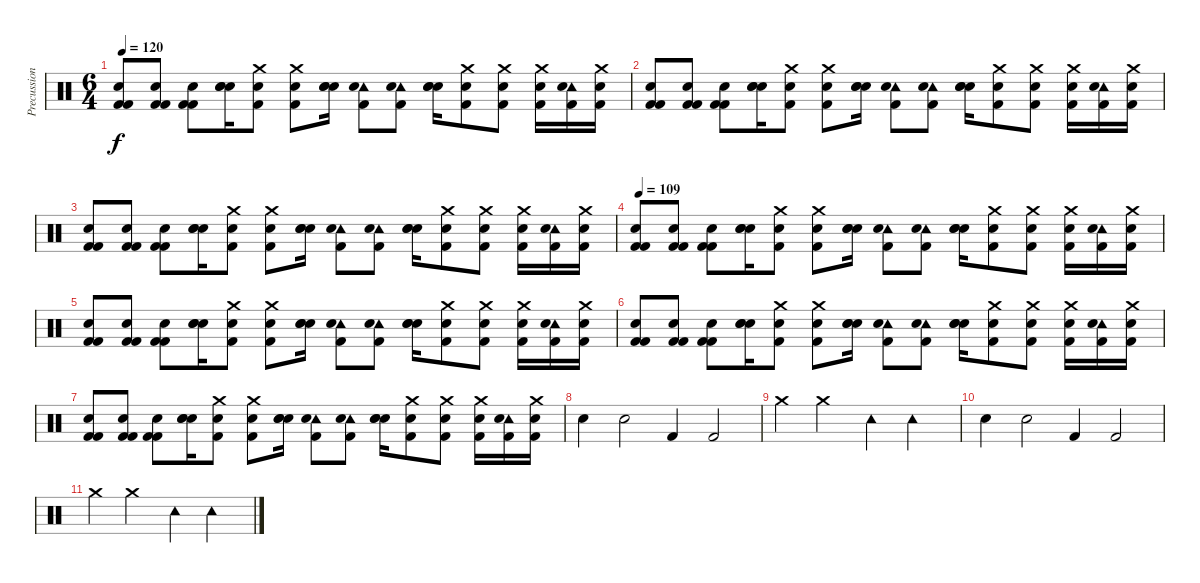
\track ("Precussion" "Precussion") {instrument percussion}
\staff {score}
\articulation defaults
\ts (6 4)
\tempo 120
\clef neutral
\ks c
("Electric Snare (hit)" "Kick (hit) 2" "Kick (hit) 2").8{dy f} ("Electric Snare (hit)" "Kick (hit) 2" "Kick (hit) 2").8 ("Electric Snare (hit)" "Kick (hit) 2" "Kick (hit) 2").8 ("Electric Snare (hit)" "Electric Snare (hit)" "Electric Snare (hit)").16 ("Crash medium (hit)" "Electric Snare (hit)" "Kick (hit) 2").8 ("Crash medium (hit)" "Electric Snare (hit)" "Kick (hit) 2").8 ("Electric Snare (hit)" "Electric Snare (hit)" "Electric Snare (hit)").16 ("Tambourine (hit)" "Electric Snare (hit)" "Kick (hit) 2").8 ("Tambourine (hit)" "Electric Snare (hit)" "Kick (hit) 2").8 ("Electric Snare (hit)" "Electric Snare (hit)" "Electric Snare (hit)").16 ("Crash medium (hit)" "Electric Snare (hit)" "Kick (hit) 2").8 ("Crash medium (hit)" "Electric Snare (hit)" "Kick (hit) 2").8 ("Crash medium (hit)" "Electric Snare (hit)" "Kick (hit) 2").16 ("Tambourine (hit)" "Electric Snare (hit)" "Kick (hit) 2").16 ("Crash medium (hit)" "Electric Snare (hit)" "Kick (hit) 2").16 |
("Electric Snare (hit)" "Kick (hit) 2" "Kick (hit) 2").8 ("Electric Snare (hit)" "Kick (hit) 2" "Kick (hit) 2").8 ("Electric Snare (hit)" "Kick (hit) 2" "Kick (hit) 2").8 ("Electric Snare (hit)" "Electric Snare (hit)" "Electric Snare (hit)").16 ("Crash medium (hit)" "Electric Snare (hit)" "Kick (hit) 2").8 ("Crash medium (hit)" "Electric Snare (hit)" "Kick (hit) 2").8 ("Electric Snare (hit)" "Electric Snare (hit)" "Electric Snare (hit)").16 ("Tambourine (hit)" "Electric Snare (hit)" "Kick (hit) 2").8 ("Tambourine (hit)" "Electric Snare (hit)" "Kick (hit) 2").8 ("Electric Snare (hit)" "Electric Snare (hit)" "Electric Snare (hit)").16 ("Crash medium (hit)" "Electric Snare (hit)" "Kick (hit) 2").8 ("Crash medium (hit)" "Electric Snare (hit)" "Kick (hit) 2").8 ("Crash medium (hit)" "Electric Snare (hit)" "Kick (hit) 2").16 ("Tambourine (hit)" "Electric Snare (hit)" "Kick (hit) 2").16 ("Crash medium (hit)" "Electric Snare (hit)" "Kick (hit) 2").16 |
("Electric Snare (hit)" "Kick (hit) 2" "Kick (hit) 2").8 ("Electric Snare (hit)" "Kick (hit) 2" "Kick (hit) 2").8 ("Electric Snare (hit)" "Kick (hit) 2" "Kick (hit) 2").8 ("Electric Snare (hit)" "Electric Snare (hit)" "Electric Snare (hit)").16 ("Crash medium (hit)" "Electric Snare (hit)" "Kick (hit) 2").8 ("Crash medium (hit)" "Electric Snare (hit)" "Kick (hit) 2").8 ("Electric Snare (hit)" "Electric Snare (hit)" "Electric Snare (hit)").16 ("Tambourine (hit)" "Electric Snare (hit)" "Kick (hit) 2").8 ("Tambourine (hit)" "Electric Snare (hit)" "Kick (hit) 2").8 ("Electric Snare (hit)" "Electric Snare (hit)" "Electric Snare (hit)").16 ("Crash medium (hit)" "Electric Snare (hit)" "Kick (hit) 2").8 ("Crash medium (hit)" "Electric Snare (hit)" "Kick (hit) 2").8 ("Crash medium (hit)" "Electric Snare (hit)" "Kick (hit) 2").16 ("Tambourine (hit)" "Electric Snare (hit)" "Kick (hit) 2").16 ("Crash medium (hit)" "Electric Snare (hit)" "Kick (hit) 2").16 |
\tempo 109
("Electric Snare (hit)" "Kick (hit) 2" "Kick (hit) 2").8 ("Electric Snare (hit)" "Kick (hit) 2" "Kick (hit) 2").8 ("Electric Snare (hit)" "Kick (hit) 2" "Kick (hit) 2").8 ("Electric Snare (hit)" "Electric Snare (hit)" "Electric Snare (hit)").16 ("Crash medium (hit)" "Electric Snare (hit)" "Kick (hit) 2").8 ("Crash medium (hit)" "Electric Snare (hit)" "Kick (hit) 2").8 ("Electric Snare (hit)" "Electric Snare (hit)" "Electric Snare (hit)").16 ("Tambourine (hit)" "Electric Snare (hit)" "Kick (hit) 2").8 ("Tambourine (hit)" "Electric Snare (hit)" "Kick (hit) 2").8 ("Electric Snare (hit)" "Electric Snare (hit)" "Electric Snare (hit)").16 ("Crash medium (hit)" "Electric Snare (hit)" "Kick (hit) 2").8 ("Crash medium (hit)" "Electric Snare (hit)" "Kick (hit) 2").8 ("Crash medium (hit)" "Electric Snare (hit)" "Kick (hit) 2").16 ("Tambourine (hit)" "Electric Snare (hit)" "Kick (hit) 2").16 ("Crash medium (hit)" "Electric Snare (hit)" "Kick (hit) 2").16 |
("Electric Snare (hit)" "Kick (hit) 2" "Kick (hit) 2").8 ("Electric Snare (hit)" "Kick (hit) 2" "Kick (hit) 2").8 ("Electric Snare (hit)" "Kick (hit) 2" "Kick (hit) 2").8 ("Electric Snare (hit)" "Electric Snare (hit)" "Electric Snare (hit)").16 ("Crash medium (hit)" "Electric Snare (hit)" "Kick (hit) 2").8 ("Crash medium (hit)" "Electric Snare (hit)" "Kick (hit) 2").8 ("Electric Snare (hit)" "Electric Snare (hit)" "Electric Snare (hit)").16 ("Tambourine (hit)" "Electric Snare (hit)" "Kick (hit) 2").8 ("Tambourine (hit)" "Electric Snare (hit)" "Kick (hit) 2").8 ("Electric Snare (hit)" "Electric Snare (hit)" "Electric Snare (hit)").16 ("Crash medium (hit)" "Electric Snare (hit)" "Kick (hit) 2").8 ("Crash medium (hit)" "Electric Snare (hit)" "Kick (hit) 2").8 ("Crash medium (hit)" "Electric Snare (hit)" "Kick (hit) 2").16 ("Tambourine (hit)" "Electric Snare (hit)" "Kick (hit) 2").16 ("Crash medium (hit)" "Electric Snare (hit)" "Kick (hit) 2").16 |
("Electric Snare (hit)" "Kick (hit) 2" "Kick (hit) 2").8 ("Electric Snare (hit)" "Kick (hit) 2" "Kick (hit) 2").8 ("Electric Snare (hit)" "Kick (hit) 2" "Kick (hit) 2").8 ("Electric Snare (hit)" "Electric Snare (hit)" "Electric Snare (hit)").16 ("Crash medium (hit)" "Electric Snare (hit)" "Kick (hit) 2").8 ("Crash medium (hit)" "Electric Snare (hit)" "Kick (hit) 2").8 ("Electric Snare (hit)" "Electric Snare (hit)" "Electric Snare (hit)").16 ("Tambourine (hit)" "Electric Snare (hit)" "Kick (hit) 2").8 ("Tambourine (hit)" "Electric Snare (hit)" "Kick (hit) 2").8 ("Electric Snare (hit)" "Electric Snare (hit)" "Electric Snare (hit)").16 ("Crash medium (hit)" "Electric Snare (hit)" "Kick (hit) 2").8 ("Crash medium (hit)" "Electric Snare (hit)" "Kick (hit) 2").8 ("Crash medium (hit)" "Electric Snare (hit)" "Kick (hit) 2").16 ("Tambourine (hit)" "Electric Snare (hit)" "Kick (hit) 2").16 ("Crash medium (hit)" "Electric Snare (hit)" "Kick (hit) 2").16 |
("Electric Snare (hit)" "Kick (hit) 2" "Kick (hit) 2").8 ("Electric Snare (hit)" "Kick (hit) 2" "Kick (hit) 2").8 ("Electric Snare (hit)" "Kick (hit) 2" "Kick (hit) 2").8 ("Electric Snare (hit)" "Electric Snare (hit)" "Electric Snare (hit)").16 ("Crash medium (hit)" "Electric Snare (hit)" "Kick (hit) 2").8 ("Crash medium (hit)" "Electric Snare (hit)" "Kick (hit) 2").8 ("Electric Snare (hit)" "Electric Snare (hit)" "Electric Snare (hit)").16 ("Tambourine (hit)" "Electric Snare (hit)" "Kick (hit) 2").8 ("Tambourine (hit)" "Electric Snare (hit)" "Kick (hit) 2").8 ("Electric Snare (hit)" "Electric Snare (hit)" "Electric Snare (hit)").16 ("Crash medium (hit)" "Electric Snare (hit)" "Kick (hit) 2").8 ("Crash medium (hit)" "Electric Snare (hit)" "Kick (hit) 2").8 ("Crash medium (hit)" "Electric Snare (hit)" "Kick (hit) 2").16 ("Tambourine (hit)" "Electric Snare (hit)" "Kick (hit) 2").16 ("Crash medium (hit)" "Electric Snare (hit)" "Kick (hit) 2").16 |
"Electric Snare (hit)".4 "Electric Snare (hit)".2 "Kick (hit) 2".4 "Kick (hit) 2".2 |
"Crash medium (hit)".4 "Crash medium (hit)".2 "Tambourine (hit)".4 "Tambourine (hit)".2 |
"Electric Snare (hit)".4 "Electric Snare (hit)".2 "Kick (hit) 2".4 "Kick (hit) 2".2 |
"Crash medium (hit)".4 "Crash medium (hit)".2 "Tambourine (hit)".4 "Tambourine (hit)".2
